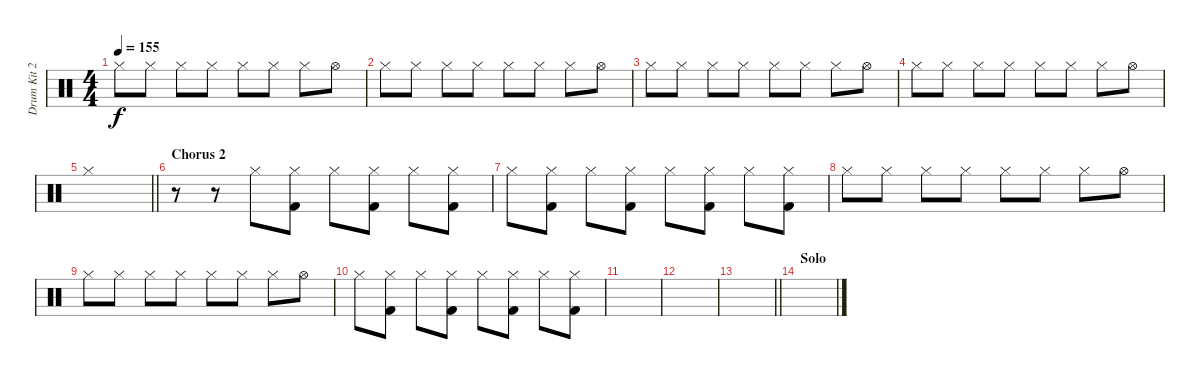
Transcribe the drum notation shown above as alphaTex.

\track ("Drum Kit 2" "Drum Kit 2") {instrument percussion}
\staff {score}
\articulation defaults
\ts (4 4)
\tempo 155
\clef neutral
\ks c "Hi-Hat (closed)".8{dy f} "Hi-Hat (closed)".8 "Hi-Hat (closed)".8 "Hi-Hat (closed)".8 "Hi-Hat (closed)".8 "Hi-Hat (closed)".8 "Hi-Hat (closed)".8 "Hi-Hat (open)".8
|
"Hi-Hat (closed)".8 "Hi-Hat (closed)".8 "Hi-Hat (closed)".8 "Hi-Hat (closed)".8 "Hi-Hat (closed)".8 "Hi-Hat (closed)".8 "Hi-Hat (closed)".8 "Hi-Hat (open)".8 |
"Hi-Hat (closed)".8 "Hi-Hat (closed)".8 "Hi-Hat (closed)".8 "Hi-Hat (closed)".8 "Hi-Hat (closed)".8 "Hi-Hat (closed)".8 "Hi-Hat (closed)".8 "Hi-Hat (open)".8 |
"Hi-Hat (closed)".8 "Hi-Hat (closed)".8 "Hi-Hat (closed)".8 "Hi-Hat (closed)".8 "Hi-Hat (closed)".8 "Hi-Hat (closed)".8 "Hi-Hat (closed)".8 "Hi-Hat (open)".8 |
\barLineRight lightlight "Hi-Hat (closed)".1
|
\section ("" "Chorus 2")
r.8 r.8 "Hi-Hat (closed)".8 ("Kick (hit) 2" "Hi-Hat (closed)").8 "Hi-Hat (closed)".8 ("Kick (hit) 2" "Hi-Hat (closed)").8 "Hi-Hat (closed)".8 ("Kick (hit) 2" "Hi-Hat (closed)").8 |
"Hi-Hat (closed)".8 ("Kick (hit) 2" "Hi-Hat (closed)").8 "Hi-Hat (closed)".8 ("Kick (hit) 2" "Hi-Hat (closed)").8 "Hi-Hat (closed)".8 ("Kick (hit) 2" "Hi-Hat (closed)").8 "Hi-Hat (closed)".8 ("Kick (hit) 2" "Hi-Hat (closed)").8 |
"Hi-Hat (closed)".8 "Hi-Hat (closed)".8 "Hi-Hat (closed)".8 "Hi-Hat (closed)".8 "Hi-Hat (closed)".8 "Hi-Hat (closed)".8 "Hi-Hat (closed)".8 "Hi-Hat (open)".8 |
"Hi-Hat (closed)".8 "Hi-Hat (closed)".8 "Hi-Hat (closed)".8 "Hi-Hat (closed)".8 "Hi-Hat (closed)".8 "Hi-Hat (closed)".8 "Hi-Hat (closed)".8 "Hi-Hat (open)".8 |
"Hi-Hat (closed)".8 ("Kick (hit) 2" "Hi-Hat (closed)").8 "Hi-Hat (closed)".8 ("Kick (hit) 2" "Hi-Hat (closed)").8 "Hi-Hat (closed)".8 ("Kick (hit) 2" "Hi-Hat (closed)").8 "Hi-Hat (closed)".8 ("Kick (hit) 2" "Hi-Hat (closed)").8 |
|
|
\barLineRight lightlight
|
\section ("" "Solo")
